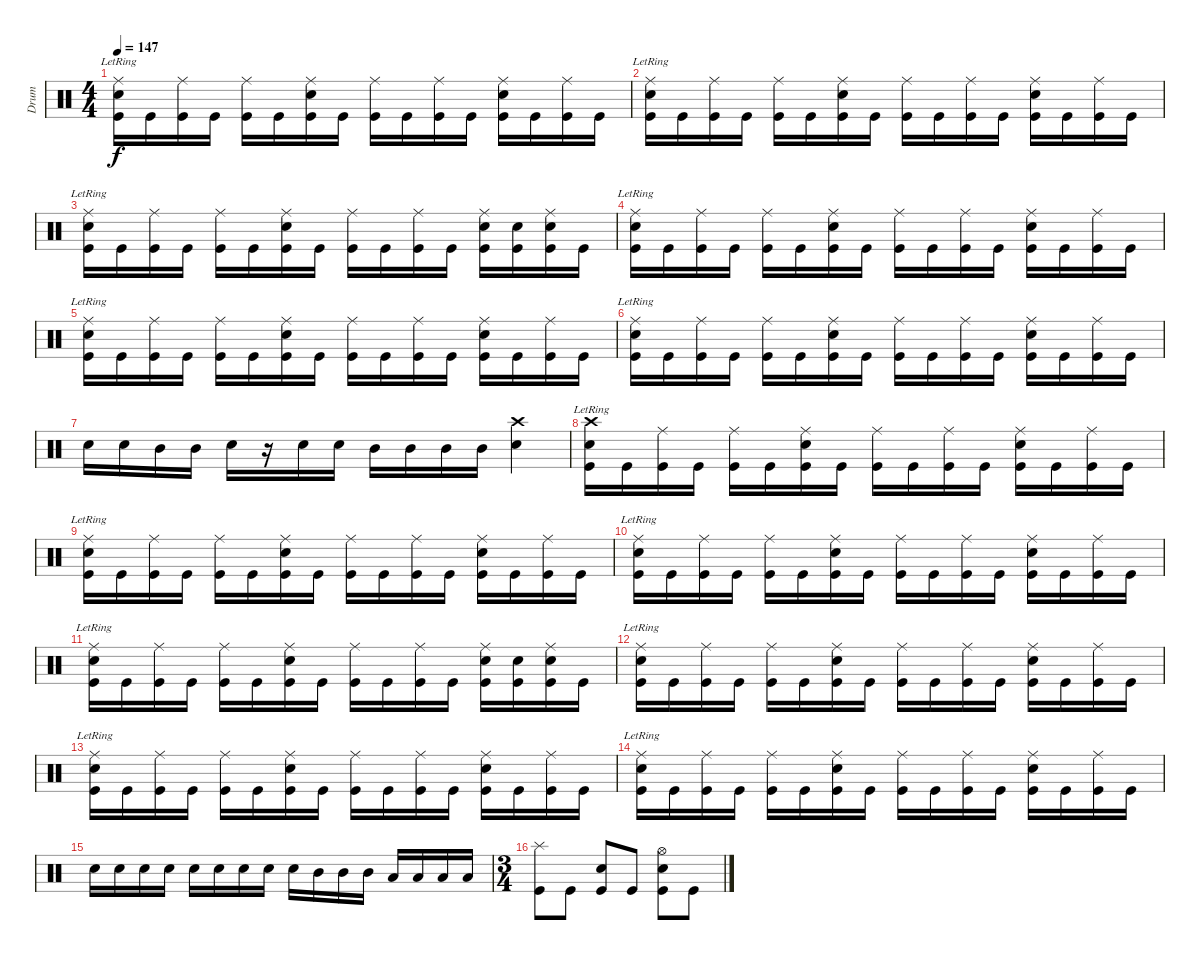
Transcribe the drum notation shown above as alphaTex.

\track ("Drum" "Drum") {instrument percussion}
\staff {score}
\articulation defaults
\ts (4 4)
\tempo 147
\clef neutral
\ks c
("Ride (middle)"{lr} "Snare (hit) 2" "Kick (hit)").16{dy f} "Kick (hit)".16 ("Ride (middle)" "Kick (hit)").16 "Kick (hit)".16 ("Ride (middle)" "Kick (hit)").16 "Kick (hit)".16 ("Ride (middle)" "Snare (hit) 2" "Kick (hit)").16 "Kick (hit)".16 ("Ride (middle)" "Kick (hit)").16 "Kick (hit)".16 ("Ride (middle)" "Kick (hit)").16 "Kick (hit)".16 ("Ride (middle)" "Snare (hit) 2" "Kick (hit)").16 "Kick (hit)".16 ("Ride (middle)" "Kick (hit)").16 "Kick (hit)".16 |
("Ride (middle)"{lr} "Snare (hit) 2" "Kick (hit)").16 "Kick (hit)".16 ("Ride (middle)" "Kick (hit)").16 "Kick (hit)".16 ("Ride (middle)" "Kick (hit)").16 "Kick (hit)".16 ("Ride (middle)" "Snare (hit) 2" "Kick (hit)").16 "Kick (hit)".16 ("Ride (middle)" "Kick (hit)").16 "Kick (hit)".16 ("Ride (middle)" "Kick (hit)").16 "Kick (hit)".16 ("Ride (middle)" "Snare (hit) 2" "Kick (hit)").16 "Kick (hit)".16 ("Ride (middle)" "Kick (hit)").16 "Kick (hit)".16 |
("Ride (middle)"{lr} "Snare (hit) 2" "Kick (hit)").16 "Kick (hit)".16 ("Ride (middle)" "Kick (hit)").16 "Kick (hit)".16 ("Ride (middle)" "Kick (hit)").16 "Kick (hit)".16 ("Ride (middle)" "Snare (hit) 2" "Kick (hit)").16 "Kick (hit)".16 ("Ride (middle)" "Kick (hit)").16 "Kick (hit)".16 ("Ride (middle)" "Kick (hit)").16 "Kick (hit)".16 ("Ride (middle)" "Snare (hit) 2" "Kick (hit)").16 ("Snare (hit) 2" "Kick (hit)").16 ("Ride (middle)" "Snare (hit) 2" "Kick (hit)").16 "Kick (hit)".16 |
("Ride (middle)"{lr} "Snare (hit) 2" "Kick (hit)").16 "Kick (hit)".16 ("Ride (middle)" "Kick (hit)").16 "Kick (hit)".16 ("Ride (middle)" "Kick (hit)").16 "Kick (hit)".16 ("Ride (middle)" "Snare (hit) 2" "Kick (hit)").16 "Kick (hit)".16 ("Ride (middle)" "Kick (hit)").16 "Kick (hit)".16 ("Ride (middle)" "Kick (hit)").16 "Kick (hit)".16 ("Ride (middle)" "Snare (hit) 2" "Kick (hit)").16 "Kick (hit)".16 ("Ride (middle)" "Kick (hit)").16 "Kick (hit)".16 |
("Ride (middle)"{lr} "Snare (hit) 2" "Kick (hit)").16 "Kick (hit)".16 ("Ride (middle)" "Kick (hit)").16 "Kick (hit)".16 ("Ride (middle)" "Kick (hit)").16 "Kick (hit)".16 ("Ride (middle)" "Snare (hit) 2" "Kick (hit)").16 "Kick (hit)".16 ("Ride (middle)" "Kick (hit)").16 "Kick (hit)".16 ("Ride (middle)" "Kick (hit)").16 "Kick (hit)".16 ("Ride (middle)" "Snare (hit) 2" "Kick (hit)").16 "Kick (hit)".16 ("Ride (middle)" "Kick (hit)").16 "Kick (hit)".16 |
("Ride (middle)"{lr} "Snare (hit) 2" "Kick (hit)").16 "Kick (hit)".16 ("Ride (middle)" "Kick (hit)").16 "Kick (hit)".16 ("Ride (middle)" "Kick (hit)").16 "Kick (hit)".16 ("Ride (middle)" "Snare (hit) 2" "Kick (hit)").16 "Kick (hit)".16 ("Ride (middle)" "Kick (hit)").16 "Kick (hit)".16 ("Ride (middle)" "Kick (hit)").16 "Kick (hit)".16 ("Ride (middle)" "Snare (hit) 2" "Kick (hit)").16 "Kick (hit)".16 ("Ride (middle)" "Kick (hit)").16 "Kick (hit)".16 |
"Snare (hit) 2".16 "Snare (hit) 2".16 "Mid Tom (hit)".16 "Mid Tom (hit)".16 "Snare (hit) 2".16 r.16 "Snare (hit) 2".16 "Snare (hit) 2".16 "Mid Tom (hit)".16 "Mid Tom (hit)".16 "Mid Tom (hit)".16 "Mid Tom (hit)".16 ("Crash high (hit)" "Snare (hit) 2").4 |
("Crash high (hit)"{lr} "Snare (hit) 2" "Kick (hit)").16 "Kick (hit)".16 ("Ride (middle)" "Kick (hit)").16 "Kick (hit)".16 ("Ride (middle)" "Kick (hit)").16 "Kick (hit)".16 ("Ride (middle)" "Snare (hit) 2" "Kick (hit)").16 "Kick (hit)".16 ("Ride (middle)" "Kick (hit)").16 "Kick (hit)".16 ("Ride (middle)" "Kick (hit)").16 "Kick (hit)".16 ("Ride (middle)" "Snare (hit) 2" "Kick (hit)").16 "Kick (hit)".16 ("Ride (middle)" "Kick (hit)").16 "Kick (hit)".16 |
("Ride (middle)"{lr} "Snare (hit) 2" "Kick (hit)").16 "Kick (hit)".16 ("Ride (middle)" "Kick (hit)").16 "Kick (hit)".16 ("Ride (middle)" "Kick (hit)").16 "Kick (hit)".16 ("Ride (middle)" "Snare (hit) 2" "Kick (hit)").16 "Kick (hit)".16 ("Ride (middle)" "Kick (hit)").16 "Kick (hit)".16 ("Ride (middle)" "Kick (hit)").16 "Kick (hit)".16 ("Ride (middle)" "Snare (hit) 2" "Kick (hit)").16 "Kick (hit)".16 ("Ride (middle)" "Kick (hit)").16 "Kick (hit)".16 |
("Ride (middle)"{lr} "Snare (hit) 2" "Kick (hit)").16 "Kick (hit)".16 ("Ride (middle)" "Kick (hit)").16 "Kick (hit)".16 ("Ride (middle)" "Kick (hit)").16 "Kick (hit)".16 ("Ride (middle)" "Snare (hit) 2" "Kick (hit)").16 "Kick (hit)".16 ("Ride (middle)" "Kick (hit)").16 "Kick (hit)".16 ("Ride (middle)" "Kick (hit)").16 "Kick (hit)".16 ("Ride (middle)" "Snare (hit) 2" "Kick (hit)").16 "Kick (hit)".16 ("Ride (middle)" "Kick (hit)").16 "Kick (hit)".16 |
("Ride (middle)"{lr} "Snare (hit) 2" "Kick (hit)").16 "Kick (hit)".16 ("Ride (middle)" "Kick (hit)").16 "Kick (hit)".16 ("Ride (middle)" "Kick (hit)").16 "Kick (hit)".16 ("Ride (middle)" "Snare (hit) 2" "Kick (hit)").16 "Kick (hit)".16 ("Ride (middle)" "Kick (hit)").16 "Kick (hit)".16 ("Ride (middle)" "Kick (hit)").16 "Kick (hit)".16 ("Ride (middle)" "Snare (hit) 2" "Kick (hit)").16 ("Snare (hit) 2" "Kick (hit)").16 ("Ride (middle)" "Snare (hit) 2" "Kick (hit)").16 "Kick (hit)".16 |
("Ride (middle)"{lr} "Snare (hit) 2" "Kick (hit)").16 "Kick (hit)".16 ("Ride (middle)" "Kick (hit)").16 "Kick (hit)".16 ("Ride (middle)" "Kick (hit)").16 "Kick (hit)".16 ("Ride (middle)" "Snare (hit) 2" "Kick (hit)").16 "Kick (hit)".16 ("Ride (middle)" "Kick (hit)").16 "Kick (hit)".16 ("Ride (middle)" "Kick (hit)").16 "Kick (hit)".16 ("Ride (middle)" "Snare (hit) 2" "Kick (hit)").16 "Kick (hit)".16 ("Ride (middle)" "Kick (hit)").16 "Kick (hit)".16 |
("Ride (middle)"{lr} "Snare (hit) 2" "Kick (hit)").16 "Kick (hit)".16 ("Ride (middle)" "Kick (hit)").16 "Kick (hit)".16 ("Ride (middle)" "Kick (hit)").16 "Kick (hit)".16 ("Ride (middle)" "Snare (hit) 2" "Kick (hit)").16 "Kick (hit)".16 ("Ride (middle)" "Kick (hit)").16 "Kick (hit)".16 ("Ride (middle)" "Kick (hit)").16 "Kick (hit)".16 ("Ride (middle)" "Snare (hit) 2" "Kick (hit)").16 "Kick (hit)".16 ("Ride (middle)" "Kick (hit)").16 "Kick (hit)".16 |
("Ride (middle)"{lr} "Snare (hit) 2" "Kick (hit)").16 "Kick (hit)".16 ("Ride (middle)" "Kick (hit)").16 "Kick (hit)".16 ("Ride (middle)" "Kick (hit)").16 "Kick (hit)".16 ("Ride (middle)" "Snare (hit) 2" "Kick (hit)").16 "Kick (hit)".16 ("Ride (middle)" "Kick (hit)").16 "Kick (hit)".16 ("Ride (middle)" "Kick (hit)").16 "Kick (hit)".16 ("Ride (middle)" "Snare (hit) 2" "Kick (hit)").16 "Kick (hit)".16 ("Ride (middle)" "Kick (hit)").16 "Kick (hit)".16 |
"Snare (hit) 2".16 "Snare (hit) 2".16 "Snare (hit) 2".16 "Snare (hit) 2".16 "Snare (hit) 2".16 "Snare (hit) 2".16 "Snare (hit) 2".16 "Snare (hit) 2".16 "Snare (hit) 2".16 "Mid Tom (hit)".16 "Mid Tom (hit)".16 "Mid Tom (hit)".16 "Low Tom (hit)".16 "Low Tom (hit)".16 "Low Tom (hit)".16 "Low Tom (hit)".16 |
\ts (3 4)
("Splash (hit)" "Kick (hit)").8 "Kick (hit)".8 ("Snare (hit) 2" "Kick (hit)").8 "Kick (hit)".8 ("Hi-Hat (open)" "Snare (hit) 2" "Kick (hit)").8 "Kick (hit)".8
